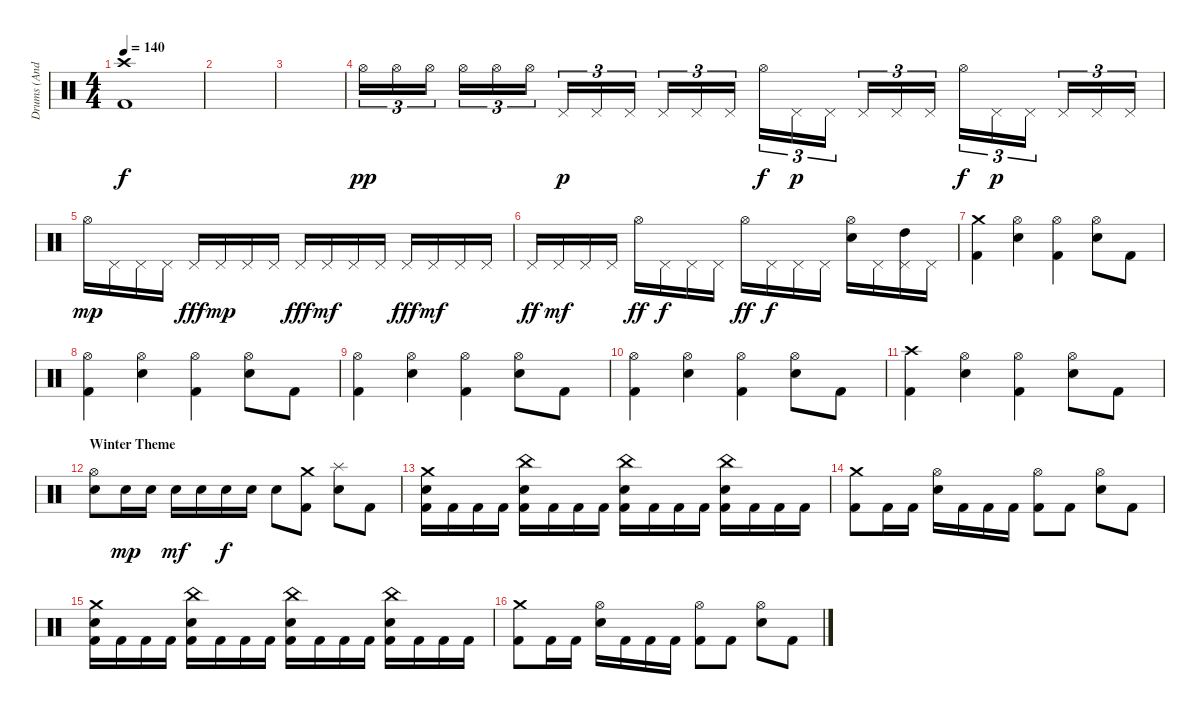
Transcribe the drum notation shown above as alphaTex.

\track ("Drums (Andy C)" "Drums (And") {instrument percussion}
\staff {score}
\articulation defaults
\ts (4 4)
\tempo 140
\clef neutral
\ks c
("Crash high (hit)" "Kick (hit) 2").1{dy f} |
|
|
"Hi-Hat (open)".16{tu (3 2) dy pp} "Hi-Hat (open)".16{tu (3 2)} "Hi-Hat (open)".16{tu (3 2)} "Hi-Hat (open)".16{tu (3 2)} "Hi-Hat (open)".16{tu (3 2)} "Hi-Hat (open)".16{tu (3 2)} "Pedal Hi-Hat (hit)".16{tu (3 2) dy p} "Pedal Hi-Hat (hit)".16{tu (3 2)} "Pedal Hi-Hat (hit)".16{tu (3 2)} "Pedal Hi-Hat (hit)".16{tu (3 2)} "Pedal Hi-Hat (hit)".16{tu (3 2)} "Pedal Hi-Hat (hit)".16{tu (3 2)} "Hi-Hat (open)".16{tu (3 2) dy f} "Pedal Hi-Hat (hit)".16{tu (3 2) dy p} "Pedal Hi-Hat (hit)".16{tu (3 2)} "Pedal Hi-Hat (hit)".16{tu (3 2)} "Pedal Hi-Hat (hit)".16{tu (3 2)} "Pedal Hi-Hat (hit)".16{tu (3 2)} "Hi-Hat (open)".16{tu (3 2) dy f} "Pedal Hi-Hat (hit)".16{tu (3 2) dy p} "Pedal Hi-Hat (hit)".16{tu (3 2)} "Pedal Hi-Hat (hit)".16{tu (3 2)} "Pedal Hi-Hat (hit)".16{tu (3 2)} "Pedal Hi-Hat (hit)".16{tu (3 2)} |
"Hi-Hat (open)".16{dy mp} "Pedal Hi-Hat (hit)".16 "Pedal Hi-Hat (hit)".16 "Pedal Hi-Hat (hit)".16 "Pedal Hi-Hat (hit)".16{dy fff} "Pedal Hi-Hat (hit)".16{dy mp} "Pedal Hi-Hat (hit)".16 "Pedal Hi-Hat (hit)".16 "Pedal Hi-Hat (hit)".16{dy fff} "Pedal Hi-Hat (hit)".16{dy mf} "Pedal Hi-Hat (hit)".16 "Pedal Hi-Hat (hit)".16 "Pedal Hi-Hat (hit)".16{dy fff} "Pedal Hi-Hat (hit)".16{dy mf} "Pedal Hi-Hat (hit)".16 "Pedal Hi-Hat (hit)".16 |
"Pedal Hi-Hat (hit)".16{dy ff} "Pedal Hi-Hat (hit)".16{dy mf} "Pedal Hi-Hat (hit)".16 "Pedal Hi-Hat (hit)".16 "Hi-Hat (open)".16{dy ff} "Pedal Hi-Hat (hit)".16{dy f} "Pedal Hi-Hat (hit)".16 "Pedal Hi-Hat (hit)".16 "Hi-Hat (open)".16{dy ff} "Pedal Hi-Hat (hit)".16{dy f} "Pedal Hi-Hat (hit)".16 "Pedal Hi-Hat (hit)".16 ("Hi-Hat (open)" "Electric Snare (hit)").16 "Pedal Hi-Hat (hit)".16 ("Pedal Hi-Hat (hit)" "High Tom (hit)").16 "Pedal Hi-Hat (hit)".16 |
("Crash medium (hit)" "Kick (hit) 2").4 ("Hi-Hat (open)" "Electric Snare (hit)").4 ("Hi-Hat (open)" "Kick (hit) 2").4 ("Hi-Hat (open)" "Electric Snare (hit)").8 "Kick (hit) 2".8 |
("Hi-Hat (open)" "Kick (hit) 2").4 ("Hi-Hat (open)" "Electric Snare (hit)").4 ("Hi-Hat (open)" "Kick (hit) 2").4 ("Hi-Hat (open)" "Electric Snare (hit)").8 "Kick (hit) 2".8 |
("Hi-Hat (open)" "Kick (hit) 2").4 ("Hi-Hat (open)" "Electric Snare (hit)").4 ("Hi-Hat (open)" "Kick (hit) 2").4 ("Hi-Hat (open)" "Electric Snare (hit)").8 "Kick (hit) 2".8 |
("Hi-Hat (open)" "Kick (hit) 2").4 ("Hi-Hat (open)" "Electric Snare (hit)").4 ("Hi-Hat (open)" "Kick (hit) 2").4 ("Hi-Hat (open)" "Electric Snare (hit)").8 "Kick (hit) 2".8 |
("Crash high (hit)" "Kick (hit) 2").4 ("Hi-Hat (open)" "Electric Snare (hit)").4 ("Hi-Hat (open)" "Kick (hit) 2").4 ("Hi-Hat (open)" "Electric Snare (hit)").8 "Kick (hit) 2".8 |
\section ("" "Winter Theme")
("Hi-Hat (open)" "Electric Snare (hit)").8 "Electric Snare (hit)".16{dy mp} "Electric Snare (hit)".16 "Electric Snare (hit)".16{dy mf} "Electric Snare (hit)".16 "Electric Snare (hit)".16{dy f} "Electric Snare (hit)".16 "Electric Snare (hit)".8 ("Crash medium (hit)" "Kick (hit) 2").8 ("Splash (hit)" "Electric Snare (hit)").8 "Kick (hit) 2".8 |
("Crash medium (hit)" "Kick (hit) 2" "Electric Snare (hit)").16 "Kick (hit) 2".16 "Kick (hit) 2".16 "Kick (hit) 2".16 ("China (hit)" "Kick (hit) 2" "Electric Snare (hit)").16 "Kick (hit) 2".16 "Kick (hit) 2".16 "Kick (hit) 2".16 ("China (hit)" "Kick (hit) 2" "Electric Snare (hit)").16 "Kick (hit) 2".16 "Kick (hit) 2".16 "Kick (hit) 2".16 ("China (hit)" "Kick (hit) 2" "Electric Snare (hit)").16 "Kick (hit) 2".16 "Kick (hit) 2".16 "Kick (hit) 2".16 |
("Crash medium (hit)" "Kick (hit) 2").8 "Kick (hit) 2".16 "Kick (hit) 2".16 ("Hi-Hat (open)" "Electric Snare (hit)").16 "Kick (hit) 2".16 "Kick (hit) 2".16 "Kick (hit) 2".16 ("Hi-Hat (open)" "Kick (hit) 2").8 "Kick (hit) 2".8 ("Hi-Hat (open)" "Electric Snare (hit)").8 "Kick (hit) 2".8 |
("Crash medium (hit)" "Kick (hit) 2" "Electric Snare (hit)").16 "Kick (hit) 2".16 "Kick (hit) 2".16 "Kick (hit) 2".16 ("China (hit)" "Kick (hit) 2" "Electric Snare (hit)").16 "Kick (hit) 2".16 "Kick (hit) 2".16 "Kick (hit) 2".16 ("China (hit)" "Kick (hit) 2" "Electric Snare (hit)").16 "Kick (hit) 2".16 "Kick (hit) 2".16 "Kick (hit) 2".16 ("China (hit)" "Kick (hit) 2" "Electric Snare (hit)").16 "Kick (hit) 2".16 "Kick (hit) 2".16 "Kick (hit) 2".16 |
("Crash medium (hit)" "Kick (hit) 2").8 "Kick (hit) 2".16 "Kick (hit) 2".16 ("Hi-Hat (open)" "Electric Snare (hit)").16 "Kick (hit) 2".16 "Kick (hit) 2".16 "Kick (hit) 2".16 ("Hi-Hat (open)" "Kick (hit) 2").8 "Kick (hit) 2".8 ("Hi-Hat (open)" "Electric Snare (hit)").8 "Kick (hit) 2".8
